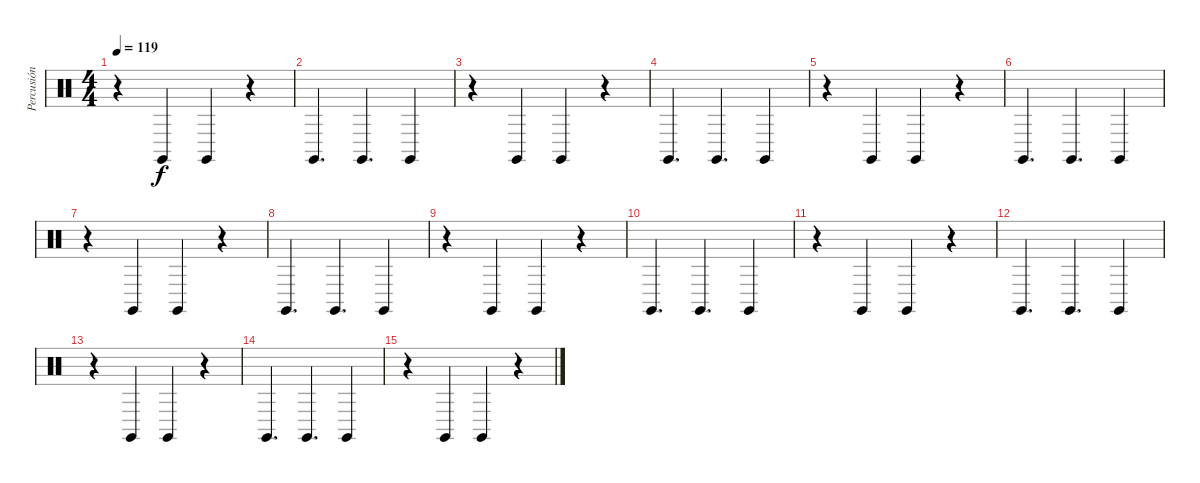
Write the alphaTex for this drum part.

\track ("Percusión" "Percusión") {instrument percussion}
\staff {score}
\articulation defaults
\ts (4 4)
\tempo 119
\clef neutral
\ks c
r.4{dy f} "Claves (hit)".4 "Claves (hit)".4 r.4 |
"Claves (hit)".4{d} "Claves (hit)".4{d} "Claves (hit)".4 |
r.4 "Claves (hit)".4 "Claves (hit)".4 r.4 |
"Claves (hit)".4{d} "Claves (hit)".4{d} "Claves (hit)".4 |
r.4 "Claves (hit)".4 "Claves (hit)".4 r.4 |
"Claves (hit)".4{d} "Claves (hit)".4{d} "Claves (hit)".4 |
r.4 "Claves (hit)".4 "Claves (hit)".4 r.4 |
"Claves (hit)".4{d} "Claves (hit)".4{d} "Claves (hit)".4 |
r.4 "Claves (hit)".4 "Claves (hit)".4 r.4 |
"Claves (hit)".4{d} "Claves (hit)".4{d} "Claves (hit)".4 |
r.4 "Claves (hit)".4 "Claves (hit)".4 r.4 |
"Claves (hit)".4{d} "Claves (hit)".4{d} "Claves (hit)".4 |
r.4 "Claves (hit)".4 "Claves (hit)".4 r.4 |
"Claves (hit)".4{d} "Claves (hit)".4{d} "Claves (hit)".4 |
r.4 "Claves (hit)".4 "Claves (hit)".4 r.4
